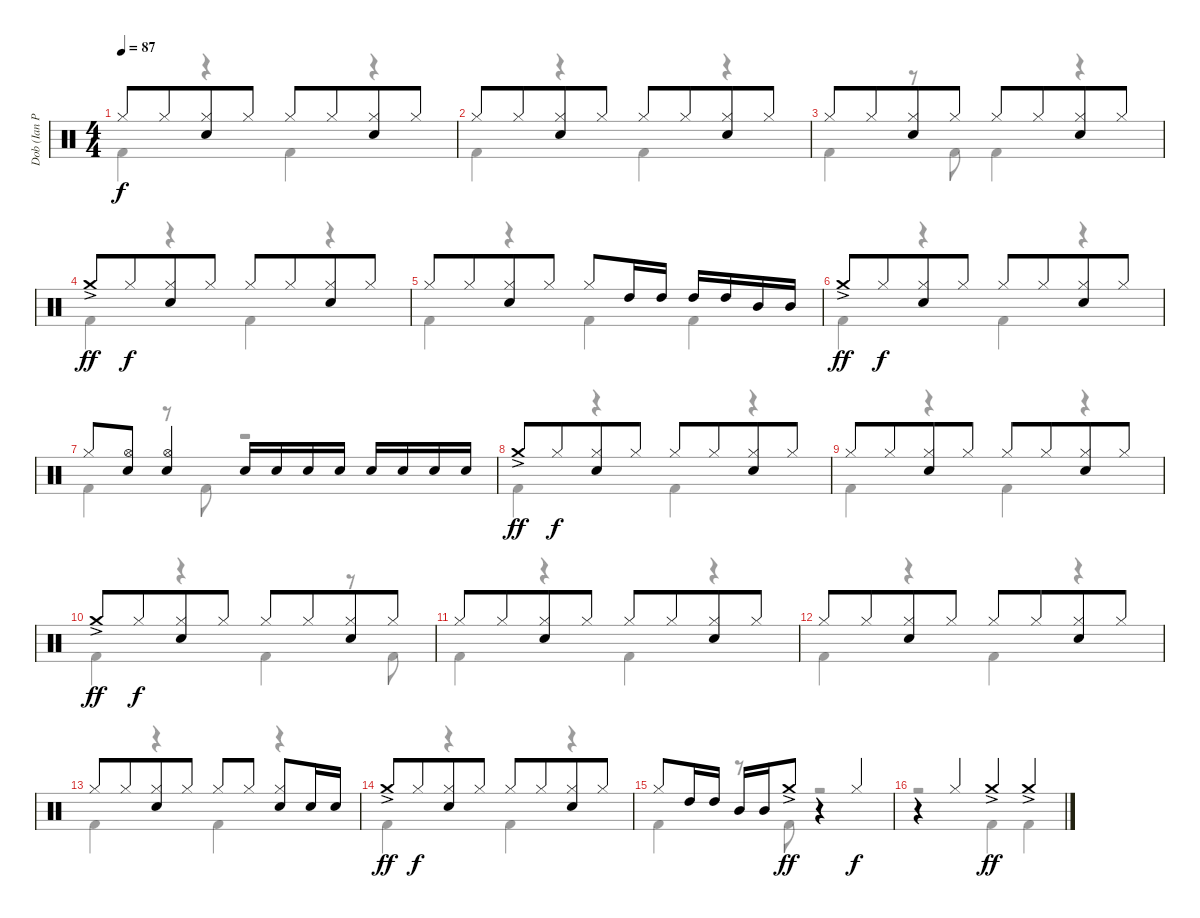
\track ("Dob (Ian Paice)" "Dob (Ian P") {instrument percussion}
\staff {score}
\articulation defaults
\voice
\ts (4 4)
\tempo 87
\clef neutral
\ks c "Hi-Hat (closed)".8{dy f} "Hi-Hat (closed)".8{beam merge}
("Hi-Hat (closed)" "Electric Snare (hit)").8 "Hi-Hat (closed)".8 "Hi-Hat (closed)".8 "Hi-Hat (closed)".8{beam merge} ("Hi-Hat (closed)" "Electric Snare (hit)").8 "Hi-Hat (closed)".8 |
"Hi-Hat (closed)".8 "Hi-Hat (closed)".8{beam merge} ("Hi-Hat (closed)" "Electric Snare (hit)").8 "Hi-Hat (closed)".8 "Hi-Hat (closed)".8 "Hi-Hat (closed)".8{beam merge} ("Hi-Hat (closed)" "Electric Snare (hit)").8 "Hi-Hat (closed)".8 |
"Hi-Hat (closed)".8 "Hi-Hat (closed)".8{beam merge} ("Hi-Hat (closed)" "Electric Snare (hit)").8 "Hi-Hat (closed)".8 "Hi-Hat (closed)".8 "Hi-Hat (closed)".8{beam merge} ("Hi-Hat (closed)" "Electric Snare (hit)").8 "Hi-Hat (closed)".8 |
"Crash medium (hit)"{ac}.8{dy ff} "Hi-Hat (closed)".8{dy f beam merge} ("Hi-Hat (closed)" "Electric Snare (hit)").8 "Hi-Hat (closed)".8 "Hi-Hat (closed)".8 "Hi-Hat (closed)".8{beam merge} ("Hi-Hat (closed)" "Electric Snare (hit)").8 "Hi-Hat (closed)".8 |
"Hi-Hat (closed)".8 "Hi-Hat (closed)".8{beam merge} ("Hi-Hat (closed)" "Electric Snare (hit)").8 "Hi-Hat (closed)".8 "Hi-Hat (closed)".8 "High Tom (hit)".16 "High Tom (hit)".16 "High Tom (hit)".16 "High Tom (hit)".16 "Mid Tom (hit)".16 "Mid Tom (hit)".16 |
"Crash medium (hit)"{ac}.8{dy ff} "Hi-Hat (closed)".8{dy f beam merge} ("Hi-Hat (closed)" "Electric Snare (hit)").8 "Hi-Hat (closed)".8 "Hi-Hat (closed)".8 "Hi-Hat (closed)".8{beam merge} ("Hi-Hat (closed)" "Electric Snare (hit)").8 "Hi-Hat (closed)".8 |
"Hi-Hat (closed)".8{beam merge} ("Hi-Hat (open)" "Electric Snare (hit)").8 ("Hi-Hat (open)" "Electric Snare (hit)").4 "Electric Snare (hit)".16 "Electric Snare (hit)".16 "Electric Snare (hit)".16 "Electric Snare (hit)".16 "Electric Snare (hit)".16 "Electric Snare (hit)".16 "Electric Snare (hit)".16 "Electric Snare (hit)".16 |
"Crash medium (hit)"{ac}.8{dy ff} "Hi-Hat (closed)".8{dy f beam merge} ("Hi-Hat (closed)" "Electric Snare (hit)").8 "Hi-Hat (closed)".8 "Hi-Hat (closed)".8 "Hi-Hat (closed)".8{beam merge} ("Hi-Hat (closed)" "Electric Snare (hit)").8 "Hi-Hat (closed)".8 |
"Hi-Hat (closed)".8 "Hi-Hat (closed)".8{beam merge} ("Hi-Hat (closed)" "Electric Snare (hit)").8 "Hi-Hat (closed)".8 "Hi-Hat (closed)".8 "Hi-Hat (closed)".8{beam merge} ("Hi-Hat (closed)" "Electric Snare (hit)").8 "Hi-Hat (closed)".8 |
"Crash medium (hit)"{ac}.8{dy ff} "Hi-Hat (closed)".8{dy f beam merge} ("Hi-Hat (closed)" "Electric Snare (hit)").8 "Hi-Hat (closed)".8 "Hi-Hat (closed)".8 "Hi-Hat (closed)".8{beam merge} ("Hi-Hat (closed)" "Electric Snare (hit)").8 "Hi-Hat (closed)".8 |
"Hi-Hat (closed)".8 "Hi-Hat (closed)".8{beam merge} ("Hi-Hat (closed)" "Electric Snare (hit)").8 "Hi-Hat (closed)".8 "Hi-Hat (closed)".8 "Hi-Hat (closed)".8{beam merge} ("Hi-Hat (closed)" "Electric Snare (hit)").8 "Hi-Hat (closed)".8 |
"Hi-Hat (closed)".8 "Hi-Hat (closed)".8{beam merge} ("Hi-Hat (closed)" "Electric Snare (hit)").8 "Hi-Hat (closed)".8 "Hi-Hat (closed)".8 "Hi-Hat (closed)".8{beam merge} ("Hi-Hat (closed)" "Electric Snare (hit)").8 "Hi-Hat (closed)".8 |
"Hi-Hat (closed)".8 "Hi-Hat (closed)".8{beam merge} ("Hi-Hat (closed)" "Electric Snare (hit)").8 "Hi-Hat (closed)".8 "Hi-Hat (closed)".8 "Hi-Hat (closed)".8{beam split} ("Hi-Hat (closed)" "Electric Snare (hit)").8 "Electric Snare (hit)".16 "Electric Snare (hit)".16 |
"Crash medium (hit)"{ac}.8{dy ff} "Hi-Hat (closed)".8{dy f beam merge} ("Hi-Hat (closed)" "Electric Snare (hit)").8 "Hi-Hat (closed)".8 "Hi-Hat (closed)".8 "Hi-Hat (closed)".8{beam merge} ("Hi-Hat (closed)" "Electric Snare (hit)").8 "Hi-Hat (closed)".8 |
"Hi-Hat (closed)".8 "High Tom (hit)".16 "High Tom (hit)".16 "Mid Tom (hit)".16 "Mid Tom (hit)".16 "Crash medium (hit)"{ac}.8{dy ff} r.4 "Hi-Hat (closed)".4{dy f} |
r.4 "Hi-Hat (closed)".4 "Crash medium (hit)"{ac}.4{dy ff} "Crash medium (hit)"{ac}.4
\voice
\clef neutral
\ottava regular
\simile none
\ks c "Kick (hit) 2".4{dy f}
r.4 "Kick (hit) 2".4 r.4 |
"Kick (hit) 2".4 r.4 "Kick (hit) 2".4 r.4 |
"Kick (hit) 2".4 r.8 "Kick (hit) 2".8 "Kick (hit) 2".4 r.4 |
"Kick (hit) 2".4 r.4 "Kick (hit) 2".4 r.4 |
"Kick (hit) 2".4 r.4 "Kick (hit) 2".4 "Kick (hit) 2".4 |
"Kick (hit) 2".4 r.4 "Kick (hit) 2".4 r.4 |
"Kick (hit) 2".4 r.8 "Kick (hit) 2".8 r.2 |
"Kick (hit) 2".4 r.4 "Kick (hit) 2".4 r.4 |
"Kick (hit) 2".4 r.4 "Kick (hit) 2".4 r.4 |
"Kick (hit) 2".4 r.4 "Kick (hit) 2".4 r.8 "Kick (hit) 2".8 |
"Kick (hit) 2".4 r.4 "Kick (hit) 2".4 r.4 |
"Kick (hit) 2".4 r.4 "Kick (hit) 2".4 r.4 |
"Kick (hit) 2".4 r.4 "Kick (hit) 2".4 r.4 |
"Kick (hit) 2".4 r.4 "Kick (hit) 2".4 r.4 |
"Kick (hit) 2".4 r.8 "Kick (hit) 2".8 r.2 |
r.2 "Kick (hit) 2".4 "Kick (hit) 2".4
